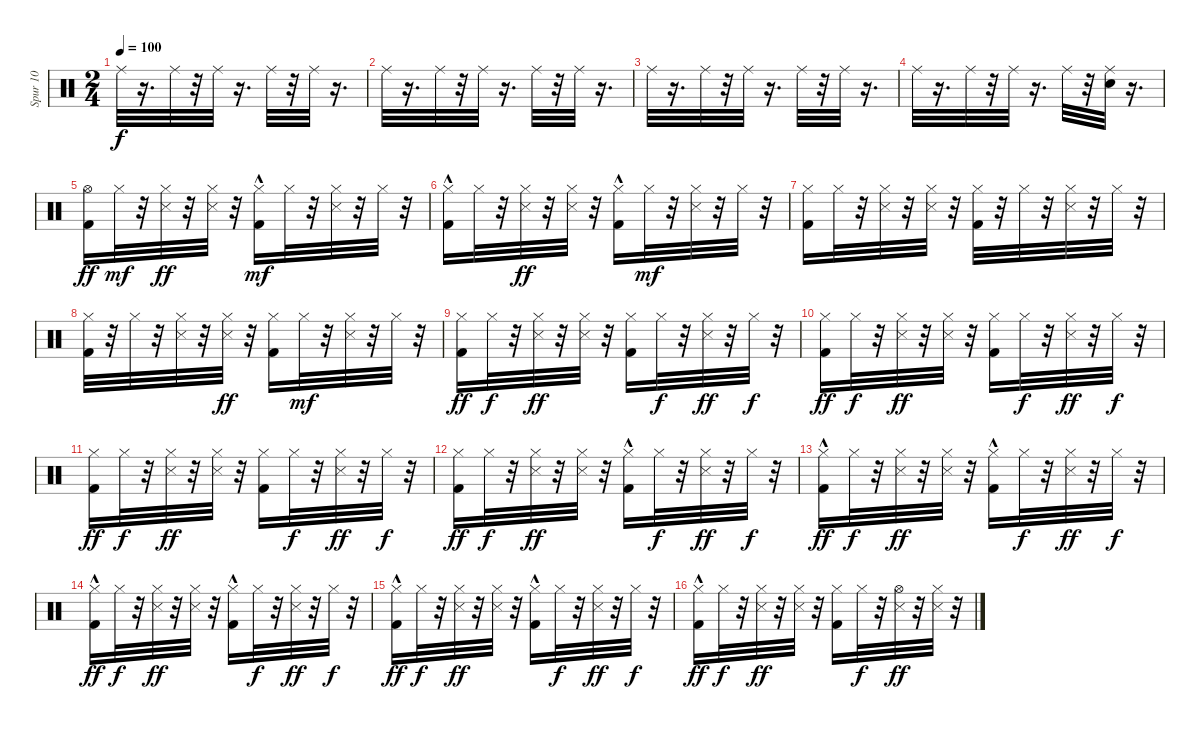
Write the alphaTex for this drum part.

\track ("Spur 10" "Spur 10") {instrument percussion}
\staff {score}
\articulation defaults
\ts (2 4)
\tempo 100
\tempo 105
\tempo 100
\clef neutral
\ks c "Ride (middle)".32{dy f}
r.16{d} "Ride (middle)".32 r.32 "Ride (middle)".32 r.16{d} "Ride (middle)".32 r.32 "Ride (middle)".32 r.16{d} |
"Ride (middle)".32 r.16{d} "Ride (middle)".32 r.32 "Ride (middle)".32 r.16{d} "Ride (middle)".32 r.32 "Ride (middle)".32 r.16{d} |
"Ride (middle)".32 r.16{d} "Ride (middle)".32 r.32 "Ride (middle)".32 r.16{d} "Ride (middle)".32 r.32 "Ride (middle)".32 r.16{d} |
"Ride (middle)".32 r.16{d} "Ride (middle)".32 r.32 "Ride (middle)".32 r.16{d} "Ride (middle)".32 r.32 ("Ride (middle)" "Electric Snare (hit)").32 r.16{d} |
("Hi-Hat (open)" "Kick (hit) 2").16{dy ff} "Hi-Hat (closed)".32{dy mf} r.32 ("Hi-Hat (closed)" "Snare (side stick) 3").32{dy ff} r.32 ("Hi-Hat (closed)" "Snare (side stick) 3").32 r.32 ("Kick (hit) 2"{hac} "Hi-Hat (closed)").16{dy mf} "Hi-Hat (closed)".32 r.32 ("Snare (side stick) 3" "Hi-Hat (closed)").32 r.32 "Hi-Hat (closed)".32 r.32 |
("Kick (hit) 2"{hac} "Hi-Hat (closed)").16 "Hi-Hat (closed)".32 r.32 ("Hi-Hat (closed)" "Snare (side stick) 3").32{dy ff} r.32 ("Hi-Hat (closed)" "Snare (side stick) 3").32 r.32 ("Hi-Hat (closed)" "Kick (hit) 2"{hac}).16 "Hi-Hat (closed)".32{dy mf} r.32 ("Snare (side stick) 3" "Hi-Hat (closed)").32 r.32 "Hi-Hat (closed)".32 r.32 |
("Kick (hit) 2" "Hi-Hat (closed)").16 "Hi-Hat (closed)".32 r.32 ("Snare (side stick) 3" "Hi-Hat (closed)").32 r.32 ("Snare (side stick) 3" "Hi-Hat (closed)").32 r.32 ("Kick (hit) 2" "Hi-Hat (closed)").32 r.32 "Hi-Hat (closed)".32 r.32 ("Snare (side stick) 3" "Hi-Hat (closed)").32 r.32 "Hi-Hat (closed)".32 r.32 |
("Kick (hit) 2" "Hi-Hat (closed)").32 r.32 "Hi-Hat (closed)".32 r.32 ("Snare (side stick) 3" "Hi-Hat (closed)").32 r.32 ("Hi-Hat (closed)" "Snare (side stick) 3").32{dy ff} r.32 ("Hi-Hat (closed)" "Kick (hit) 2").16 "Hi-Hat (closed)".32{dy mf} r.32 ("Snare (side stick) 3" "Hi-Hat (closed)").32 r.32 "Hi-Hat (closed)".32 r.32 |
("Hi-Hat (closed)" "Kick (hit) 2").16{dy ff volume 14} "Hi-Hat (closed)".32{dy f} r.32 ("Snare (side stick) 3" "Hi-Hat (closed)").32{dy ff} r.32 ("Snare (side stick) 3" "Hi-Hat (closed)").32 r.32 ("Kick (hit) 2" "Hi-Hat (closed)").16 "Hi-Hat (closed)".32{dy f} r.32 ("Snare (side stick) 3" "Hi-Hat (closed)").32{dy ff} r.32 "Hi-Hat (closed)".32{dy f} r.32 |
("Hi-Hat (closed)" "Kick (hit) 2").16{dy ff} "Hi-Hat (closed)".32{dy f} r.32 ("Hi-Hat (closed)" "Snare (side stick) 3").32{dy ff} r.32 ("Hi-Hat (closed)" "Snare (side stick) 3").32 r.32 ("Kick (hit) 2" "Hi-Hat (closed)").16 "Hi-Hat (closed)".32{dy f} r.32 ("Snare (side stick) 3" "Hi-Hat (closed)").32{dy ff} r.32 "Hi-Hat (closed)".32{dy f} r.32 |
("Kick (hit) 2" "Hi-Hat (closed)").16{dy ff} "Hi-Hat (closed)".32{dy f} r.32 ("Snare (side stick) 3" "Hi-Hat (closed)").32{dy ff} r.32 ("Hi-Hat (closed)" "Snare (side stick) 3").32 r.32 ("Kick (hit) 2" "Hi-Hat (closed)").16 "Hi-Hat (closed)".32{dy f} r.32 ("Snare (side stick) 3" "Hi-Hat (closed)").32{dy ff} r.32 "Hi-Hat (closed)".32{dy f} r.32 |
("Kick (hit) 2" "Hi-Hat (closed)").16{dy ff} "Hi-Hat (closed)".32{dy f} r.32 ("Hi-Hat (closed)" "Snare (side stick) 3").32{dy ff} r.32 ("Hi-Hat (closed)" "Snare (side stick) 3").32 r.32 ("Kick (hit) 2"{hac} "Hi-Hat (closed)").16 "Hi-Hat (closed)".32{dy f} r.32 ("Snare (side stick) 3" "Hi-Hat (closed)").32{dy ff} r.32 "Hi-Hat (closed)".32{dy f} r.32 |
("Kick (hit) 2"{hac} "Hi-Hat (closed)").16{dy ff} "Hi-Hat (closed)".32{dy f} r.32 ("Snare (side stick) 3" "Hi-Hat (closed)").32{dy ff} r.32 ("Snare (side stick) 3" "Hi-Hat (closed)").32 r.32 ("Kick (hit) 2"{hac} "Hi-Hat (closed)").16 "Hi-Hat (closed)".32{dy f} r.32 ("Snare (side stick) 3" "Hi-Hat (closed)").32{dy ff} r.32 "Hi-Hat (closed)".32{dy f} r.32 |
("Kick (hit) 2"{hac} "Hi-Hat (closed)").16{dy ff} "Hi-Hat (closed)".32{dy f} r.32 ("Snare (side stick) 3" "Hi-Hat (closed)").32{dy ff} r.32 ("Snare (side stick) 3" "Hi-Hat (closed)").32 r.32 ("Kick (hit) 2"{hac} "Hi-Hat (closed)").16 "Hi-Hat (closed)".32{dy f} r.32 ("Snare (side stick) 3" "Hi-Hat (closed)").32{dy ff} r.32 "Hi-Hat (closed)".32{dy f} r.32 |
("Kick (hit) 2"{hac} "Hi-Hat (closed)").16{dy ff} "Hi-Hat (closed)".32{dy f} r.32 ("Snare (side stick) 3" "Hi-Hat (closed)").32{dy ff} r.32 ("Snare (side stick) 3" "Hi-Hat (closed)").32 r.32 ("Hi-Hat (closed)" "Kick (hit) 2"{hac}).16 "Hi-Hat (closed)".32{dy f} r.32 ("Snare (side stick) 3" "Hi-Hat (closed)").32{dy ff} r.32 "Hi-Hat (closed)".32{dy f} r.32 |
("Hi-Hat (closed)" "Kick (hit) 2"{hac}).16{dy ff} "Hi-Hat (closed)".32{dy f} r.32 ("Snare (side stick) 3" "Hi-Hat (closed)").32{dy ff} r.32 ("Hi-Hat (closed)" "Snare (side stick) 3").32 r.32 ("Hi-Hat (closed)" "Kick (hit) 2").16 "Hi-Hat (closed)".32{dy f} r.32 ("Snare (side stick) 3" "Hi-Hat (open)").32{dy ff} r.32 ("Snare (side stick) 3" "Hi-Hat (closed)").32 r.32
